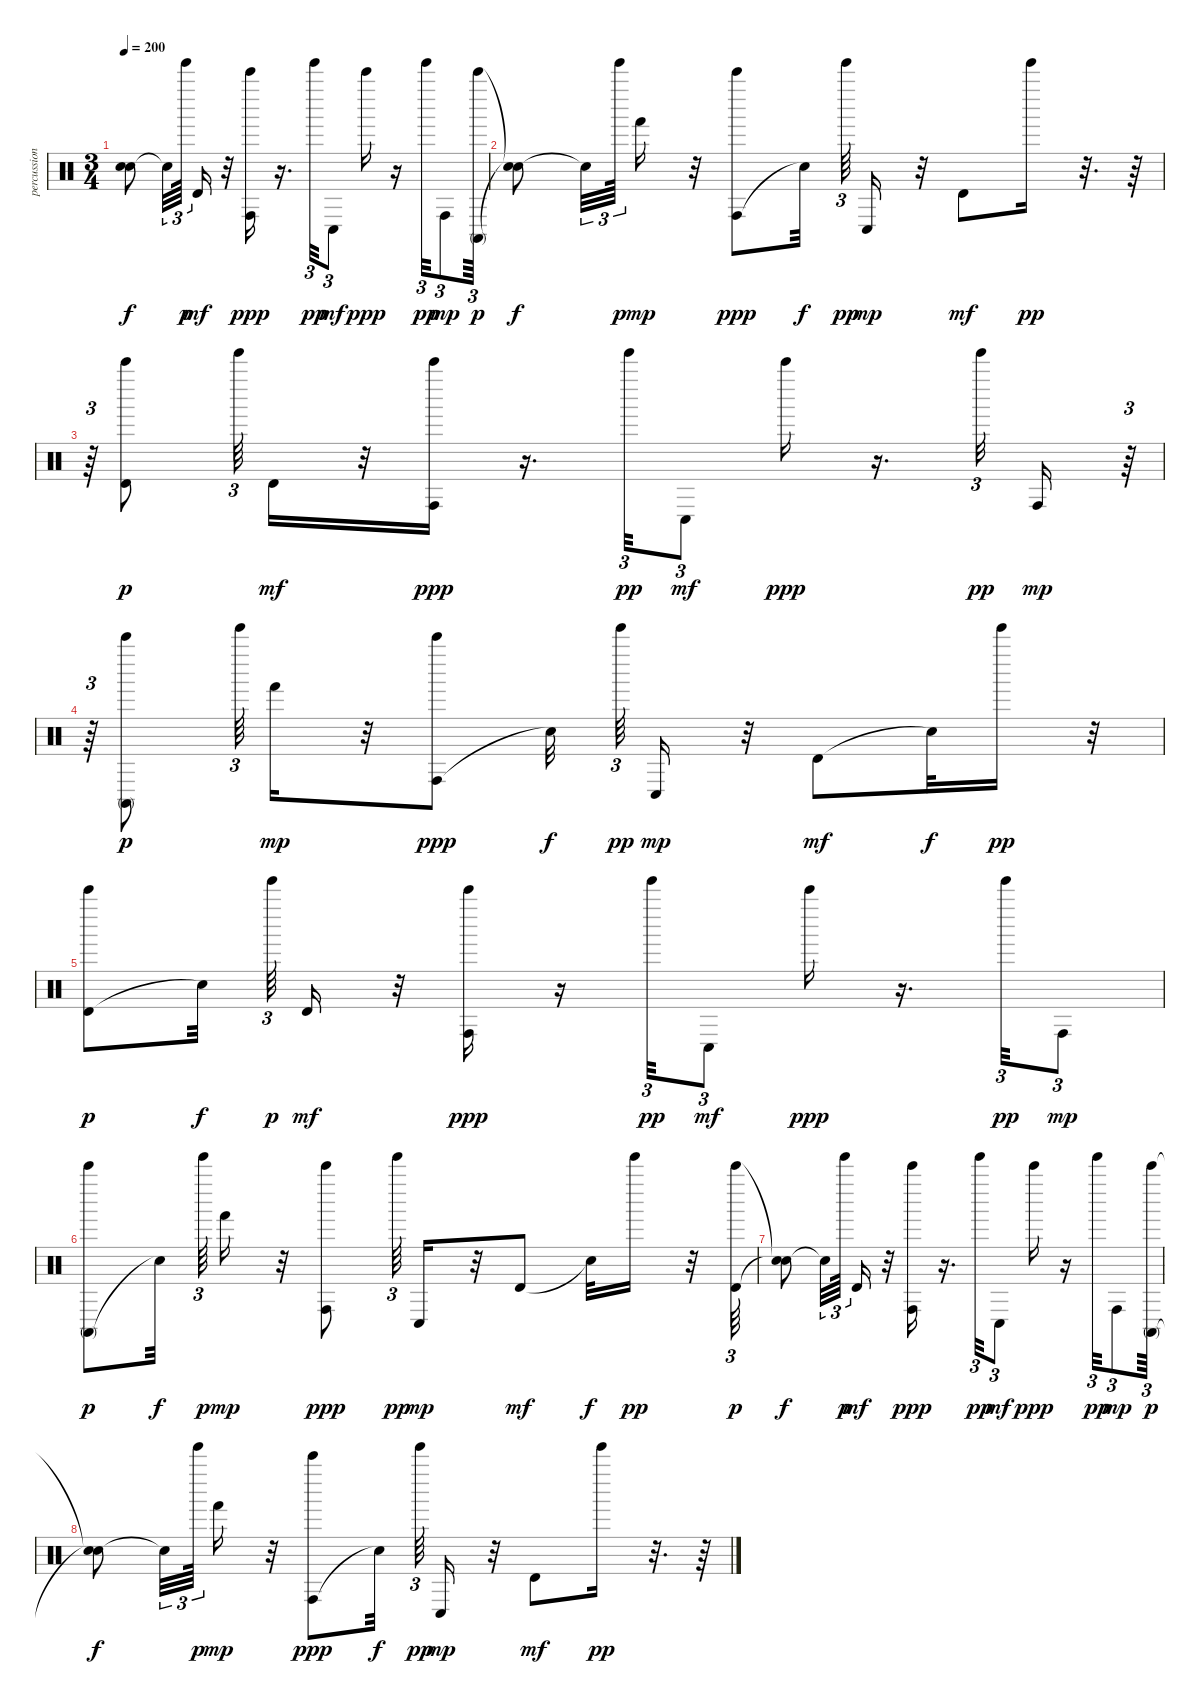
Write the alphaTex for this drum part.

\track ("percussion" "percussion") {instrument percussion}
\staff {score}
\articulation defaults
\ts (3 4)
\tempo 200
\clef neutral
\ks c
("Snare (hit)"{t} "Snare (hit)"{t}).8{dy f} "Snare (hit)"{t}.32{tu (3 2)} "Tinkle Bell (hit)".64{tu (3 2) dy p} "Timbale high (hit)".16{dy mf} r.32 ("Conga high (hit)" "Bell Tree (hit)").16{dy ppp} r.16{d} "Tinkle Bell (hit)".32{tu (3 2) dy pp} "Conga low (hit)".8{tu (3 2) dy mf} "Bell Tree (hit)".16{dy ppp} r.16 "Tinkle Bell (hit)".32{tu (3 2) dy pp} "Conga high (hit)".8{tu (3 2) dy mp} ("Conga high (mute)" "Bell Tree (hit)").64{tu (3 2) dy p} |
("Snare (hit)"{t} "Snare (hit)"{t}).8{dy f} "Snare (hit)"{t}.32{tu (3 2)} "Tinkle Bell (hit)".64{tu (3 2) dy p} "Hand (hit)".16{dy mp} r.32 ("Conga high (hit)" "Bell Tree (hit)").8{dy ppp} "Snare (hit)"{t}.32{dy f} "Tinkle Bell (hit)".64{tu (3 2) dy pp} "Conga low (hit)".16{dy mp} r.32 "Timbale high (hit)".8{dy mf} "Tinkle Bell (hit)".16{dy pp} r.32{d} r.64 |
r.64{tu (3 2)} ("Timbale high (hit)" "Bell Tree (hit)").8{dy p} "Tinkle Bell (hit)".64{tu (3 2)} "Timbale high (hit)".16{dy mf} r.32 ("Conga high (hit)" "Bell Tree (hit)").16{dy ppp} r.16{d} "Tinkle Bell (hit)".32{tu (3 2) dy pp} "Conga low (hit)".8{tu (3 2) dy mf} "Bell Tree (hit)".16{dy ppp} r.16{d} "Tinkle Bell (hit)".32{tu (3 2) dy pp} "Conga high (hit)".16{dy mp} r.64{tu (3 2)} |
r.64{tu (3 2)} ("Conga high (mute)" "Bell Tree (hit)").8{dy p} "Tinkle Bell (hit)".64{tu (3 2)} "Hand (hit)".16{dy mp} r.32 ("Conga high (hit)" "Bell Tree (hit)").8{dy ppp} "Snare (hit)"{t}.32{dy f} "Tinkle Bell (hit)".64{tu (3 2) dy pp} "Conga low (hit)".16{dy mp} r.32 "Timbale high (hit)".8{dy mf} "Snare (hit)"{t}.32{dy f} "Tinkle Bell (hit)".16{dy pp} r.32 |
("Timbale high (hit)" "Bell Tree (hit)").8{dy p} "Snare (hit)"{t}.32{dy f} "Tinkle Bell (hit)".64{tu (3 2) dy p} "Timbale high (hit)".16{dy mf} r.32 ("Conga high (hit)" "Bell Tree (hit)").16{dy ppp} r.16 "Tinkle Bell (hit)".32{tu (3 2) dy pp} "Conga low (hit)".8{tu (3 2) dy mf} "Bell Tree (hit)".16{dy ppp} r.16{d} "Tinkle Bell (hit)".32{tu (3 2) dy pp} "Conga high (hit)".8{tu (3 2) dy mp} |
("Conga high (mute)" "Bell Tree (hit)").8{dy p} "Snare (hit)"{t}.32{dy f} "Tinkle Bell (hit)".64{tu (3 2) dy p} "Hand (hit)".16{dy mp} r.32 ("Conga high (hit)" "Bell Tree (hit)").8{dy ppp} "Tinkle Bell (hit)".64{tu (3 2) dy pp} "Conga low (hit)".16{dy mp} r.32 "Timbale high (hit)".8{dy mf} "Snare (hit)"{t}.32{dy f} "Tinkle Bell (hit)".16{dy pp} r.32 ("Timbale high (hit)" "Bell Tree (hit)").64{tu (3 2) dy p} |
("Snare (hit)"{t} "Snare (hit)"{t}).8{dy f} "Snare (hit)"{t}.32{tu (3 2)} "Tinkle Bell (hit)".64{tu (3 2) dy p} "Timbale high (hit)".16{dy mf} r.32 ("Conga high (hit)" "Bell Tree (hit)").16{dy ppp} r.16{d} "Tinkle Bell (hit)".32{tu (3 2) dy pp} "Conga low (hit)".8{tu (3 2) dy mf} "Bell Tree (hit)".16{dy ppp} r.16 "Tinkle Bell (hit)".32{tu (3 2) dy pp} "Conga high (hit)".8{tu (3 2) dy mp} ("Conga high (mute)" "Bell Tree (hit)").64{tu (3 2) dy p} |
("Snare (hit)"{t} "Snare (hit)"{t}).8{dy f} "Snare (hit)"{t}.32{tu (3 2)} "Tinkle Bell (hit)".64{tu (3 2) dy p} "Hand (hit)".16{dy mp} r.32 ("Conga high (hit)" "Bell Tree (hit)").8{dy ppp} "Snare (hit)"{t}.32{dy f} "Tinkle Bell (hit)".64{tu (3 2) dy pp} "Conga low (hit)".16{dy mp} r.32 "Timbale high (hit)".8{dy mf} "Tinkle Bell (hit)".16{dy pp} r.32{d} r.64
